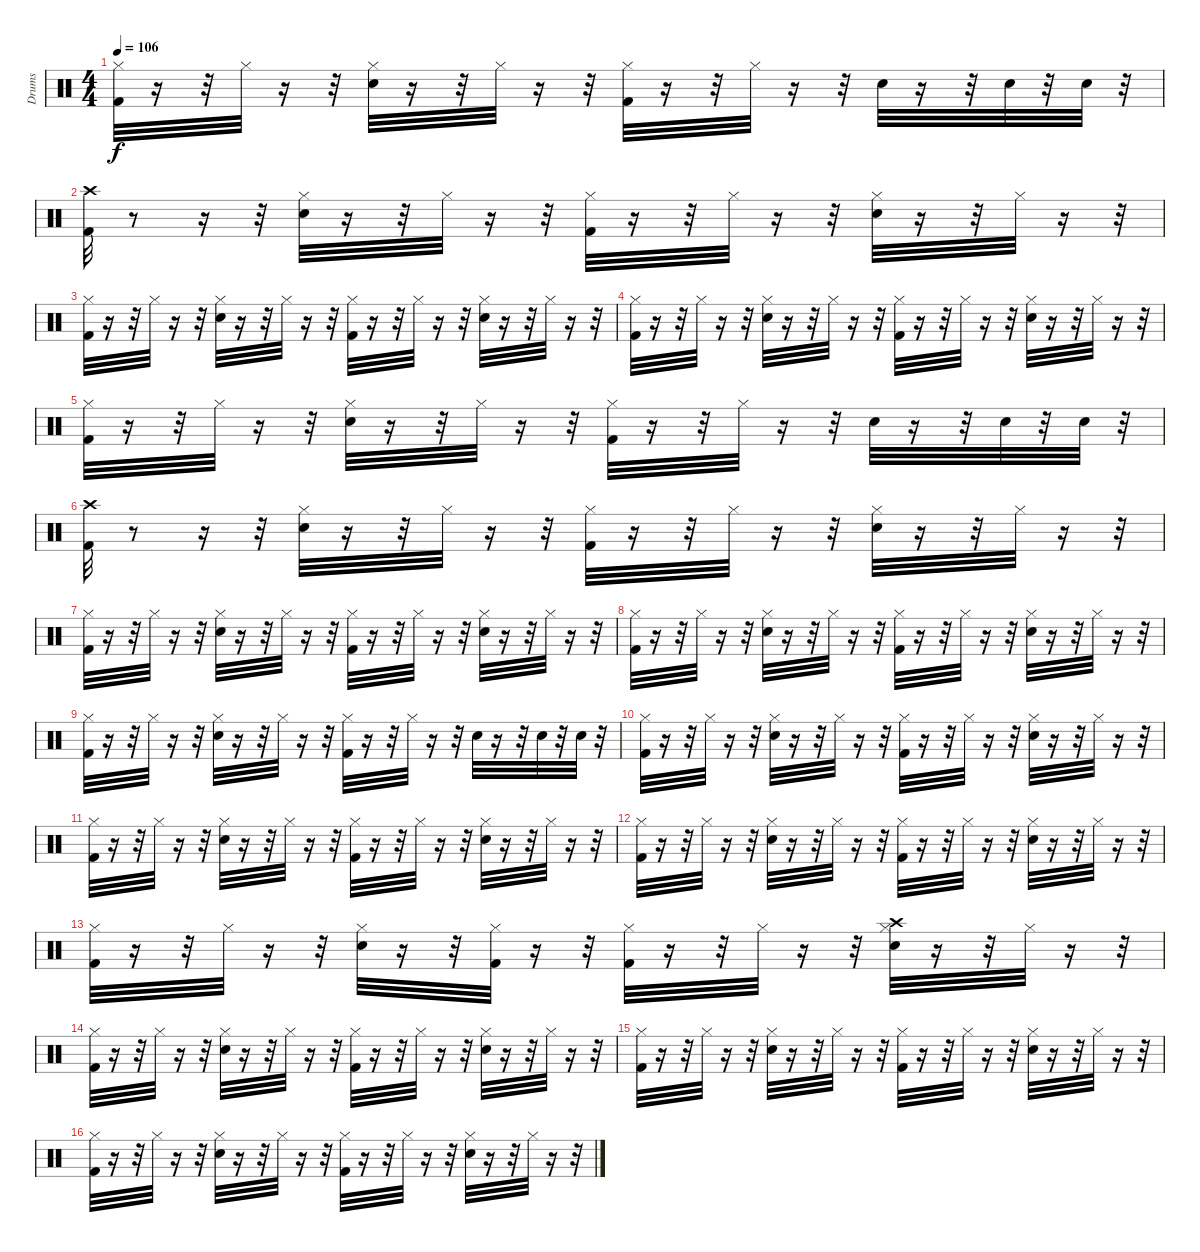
\track ("Drums" "Drums") {instrument percussion}
\staff {score}
\articulation defaults
\ts (4 4)
\tempo 106
\clef neutral
\ks c
("Hi-Hat (closed)" "Kick (hit) 2").32{dy f} r.16 r.32 "Hi-Hat (closed)".32 r.16 r.32 ("Hi-Hat (closed)" "Snare (hit) 2").32 r.16 r.32 "Hi-Hat (closed)".32 r.16 r.32 ("Hi-Hat (closed)" "Kick (hit) 2").32 r.16 r.32 "Hi-Hat (closed)".32 r.16 r.32 "Snare (hit) 2".32 r.16 r.32 "Snare (hit) 2".32 r.32 "Snare (hit) 2".32 r.32 |
("Crash high (hit)" "Kick (hit) 2").32 r.8 r.16 r.32 ("Hi-Hat (closed)" "Snare (hit) 2").32 r.16 r.32 "Hi-Hat (closed)".32 r.16 r.32 ("Hi-Hat (closed)" "Kick (hit) 2").32 r.16 r.32 "Hi-Hat (closed)".32 r.16 r.32 ("Hi-Hat (closed)" "Snare (hit) 2").32 r.16 r.32 "Hi-Hat (closed)".32 r.16 r.32 |
("Hi-Hat (closed)" "Kick (hit) 2").32 r.16 r.32 "Hi-Hat (closed)".32 r.16 r.32 ("Hi-Hat (closed)" "Snare (hit) 2").32 r.16 r.32 "Hi-Hat (closed)".32 r.16 r.32 ("Hi-Hat (closed)" "Kick (hit) 2").32 r.16 r.32 "Hi-Hat (closed)".32 r.16 r.32 ("Hi-Hat (closed)" "Snare (hit) 2").32 r.16 r.32 "Hi-Hat (closed)".32 r.16 r.32 |
("Hi-Hat (closed)" "Kick (hit) 2").32 r.16 r.32 "Hi-Hat (closed)".32 r.16 r.32 ("Hi-Hat (closed)" "Snare (hit) 2").32 r.16 r.32 "Hi-Hat (closed)".32 r.16 r.32 ("Hi-Hat (closed)" "Kick (hit) 2").32 r.16 r.32 "Hi-Hat (closed)".32 r.16 r.32 ("Hi-Hat (closed)" "Snare (hit) 2").32 r.16 r.32 "Hi-Hat (closed)".32 r.16 r.32 |
("Hi-Hat (closed)" "Kick (hit) 2").32 r.16 r.32 "Hi-Hat (closed)".32 r.16 r.32 ("Hi-Hat (closed)" "Snare (hit) 2").32 r.16 r.32 "Hi-Hat (closed)".32 r.16 r.32 ("Hi-Hat (closed)" "Kick (hit) 2").32 r.16 r.32 "Hi-Hat (closed)".32 r.16 r.32 "Snare (hit) 2".32 r.16 r.32 "Snare (hit) 2".32 r.32 "Snare (hit) 2".32 r.32 |
("Crash high (hit)" "Kick (hit) 2").32 r.8 r.16 r.32 ("Hi-Hat (closed)" "Snare (hit) 2").32 r.16 r.32 "Hi-Hat (closed)".32 r.16 r.32 ("Hi-Hat (closed)" "Kick (hit) 2").32 r.16 r.32 "Hi-Hat (closed)".32 r.16 r.32 ("Hi-Hat (closed)" "Snare (hit) 2").32 r.16 r.32 "Hi-Hat (closed)".32 r.16 r.32 |
("Hi-Hat (closed)" "Kick (hit) 2").32 r.16 r.32 "Hi-Hat (closed)".32 r.16 r.32 ("Hi-Hat (closed)" "Snare (hit) 2").32 r.16 r.32 "Hi-Hat (closed)".32 r.16 r.32 ("Hi-Hat (closed)" "Kick (hit) 2").32 r.16 r.32 "Hi-Hat (closed)".32 r.16 r.32 ("Hi-Hat (closed)" "Snare (hit) 2").32 r.16 r.32 "Hi-Hat (closed)".32 r.16 r.32 |
("Hi-Hat (closed)" "Kick (hit) 2").32 r.16 r.32 "Hi-Hat (closed)".32 r.16 r.32 ("Hi-Hat (closed)" "Snare (hit) 2").32 r.16 r.32 "Hi-Hat (closed)".32 r.16 r.32 ("Hi-Hat (closed)" "Kick (hit) 2").32 r.16 r.32 "Hi-Hat (closed)".32 r.16 r.32 ("Hi-Hat (closed)" "Snare (hit) 2").32 r.16 r.32 "Hi-Hat (closed)".32 r.16 r.32 |
("Hi-Hat (closed)" "Kick (hit) 2").32 r.16 r.32 "Hi-Hat (closed)".32 r.16 r.32 ("Hi-Hat (closed)" "Snare (hit) 2").32 r.16 r.32 "Hi-Hat (closed)".32 r.16 r.32 ("Hi-Hat (closed)" "Kick (hit) 2").32 r.16 r.32 "Hi-Hat (closed)".32 r.16 r.32 "Snare (hit) 2".32 r.16 r.32 "Snare (hit) 2".32 r.32 "Snare (hit) 2".32 r.32 |
("Kick (hit) 2" "Hi-Hat (closed)").32 r.16 r.32 "Hi-Hat (closed)".32 r.16 r.32 ("Hi-Hat (closed)" "Snare (hit) 2").32 r.16 r.32 "Hi-Hat (closed)".32 r.16 r.32 ("Hi-Hat (closed)" "Kick (hit) 2").32 r.16 r.32 "Hi-Hat (closed)".32 r.16 r.32 ("Hi-Hat (closed)" "Snare (hit) 2").32 r.16 r.32 "Hi-Hat (closed)".32 r.16 r.32 |
("Hi-Hat (closed)" "Kick (hit) 2").32 r.16 r.32 "Hi-Hat (closed)".32 r.16 r.32 ("Hi-Hat (closed)" "Snare (hit) 2").32 r.16 r.32 "Hi-Hat (closed)".32 r.16 r.32 ("Hi-Hat (closed)" "Kick (hit) 2").32 r.16 r.32 "Hi-Hat (closed)".32 r.16 r.32 ("Hi-Hat (closed)" "Snare (hit) 2").32 r.16 r.32 "Hi-Hat (closed)".32 r.16 r.32 |
("Kick (hit) 2" "Hi-Hat (closed)").32 r.16 r.32 "Hi-Hat (closed)".32 r.16 r.32 ("Hi-Hat (closed)" "Snare (hit) 2").32 r.16 r.32 "Hi-Hat (closed)".32 r.16 r.32 ("Hi-Hat (closed)" "Kick (hit) 2").32 r.16 r.32 "Hi-Hat (closed)".32 r.16 r.32 ("Hi-Hat (closed)" "Snare (hit) 2").32 r.16 r.32 "Hi-Hat (closed)".32 r.16 r.32 |
("Hi-Hat (closed)" "Kick (hit) 2").32 r.16 r.32 "Hi-Hat (closed)".32 r.16 r.32 ("Hi-Hat (closed)" "Snare (hit) 2").32 r.16 r.32 ("Hi-Hat (closed)" "Kick (hit) 2").32 r.16 r.32 ("Hi-Hat (closed)" "Kick (hit) 2").32 r.16 r.32 "Hi-Hat (closed)".32 r.16 r.32 ("Crash high (hit)" "Hi-Hat (closed)" "Snare (hit) 2").32 r.16 r.32 "Hi-Hat (closed)".32 r.16 r.32 |
("Kick (hit) 2" "Hi-Hat (closed)").32 r.16 r.32 "Hi-Hat (closed)".32 r.16 r.32 ("Hi-Hat (closed)" "Snare (hit) 2").32 r.16 r.32 "Hi-Hat (closed)".32 r.16 r.32 ("Hi-Hat (closed)" "Kick (hit) 2").32 r.16 r.32 "Hi-Hat (closed)".32 r.16 r.32 ("Hi-Hat (closed)" "Snare (hit) 2").32 r.16 r.32 "Hi-Hat (closed)".32 r.16 r.32 |
("Hi-Hat (closed)" "Kick (hit) 2").32 r.16 r.32 "Hi-Hat (closed)".32 r.16 r.32 ("Hi-Hat (closed)" "Snare (hit) 2").32 r.16 r.32 "Hi-Hat (closed)".32 r.16 r.32 ("Hi-Hat (closed)" "Kick (hit) 2").32 r.16 r.32 "Hi-Hat (closed)".32 r.16 r.32 ("Hi-Hat (closed)" "Snare (hit) 2").32 r.16 r.32 "Hi-Hat (closed)".32 r.16 r.32 |
("Kick (hit) 2" "Hi-Hat (closed)").32 r.16 r.32 "Hi-Hat (closed)".32 r.16 r.32 ("Hi-Hat (closed)" "Snare (hit) 2").32 r.16 r.32 "Hi-Hat (closed)".32 r.16 r.32 ("Hi-Hat (closed)" "Kick (hit) 2").32 r.16 r.32 "Hi-Hat (closed)".32 r.16 r.32 ("Hi-Hat (closed)" "Snare (hit) 2").32 r.16 r.32 "Hi-Hat (closed)".32 r.16 r.32
